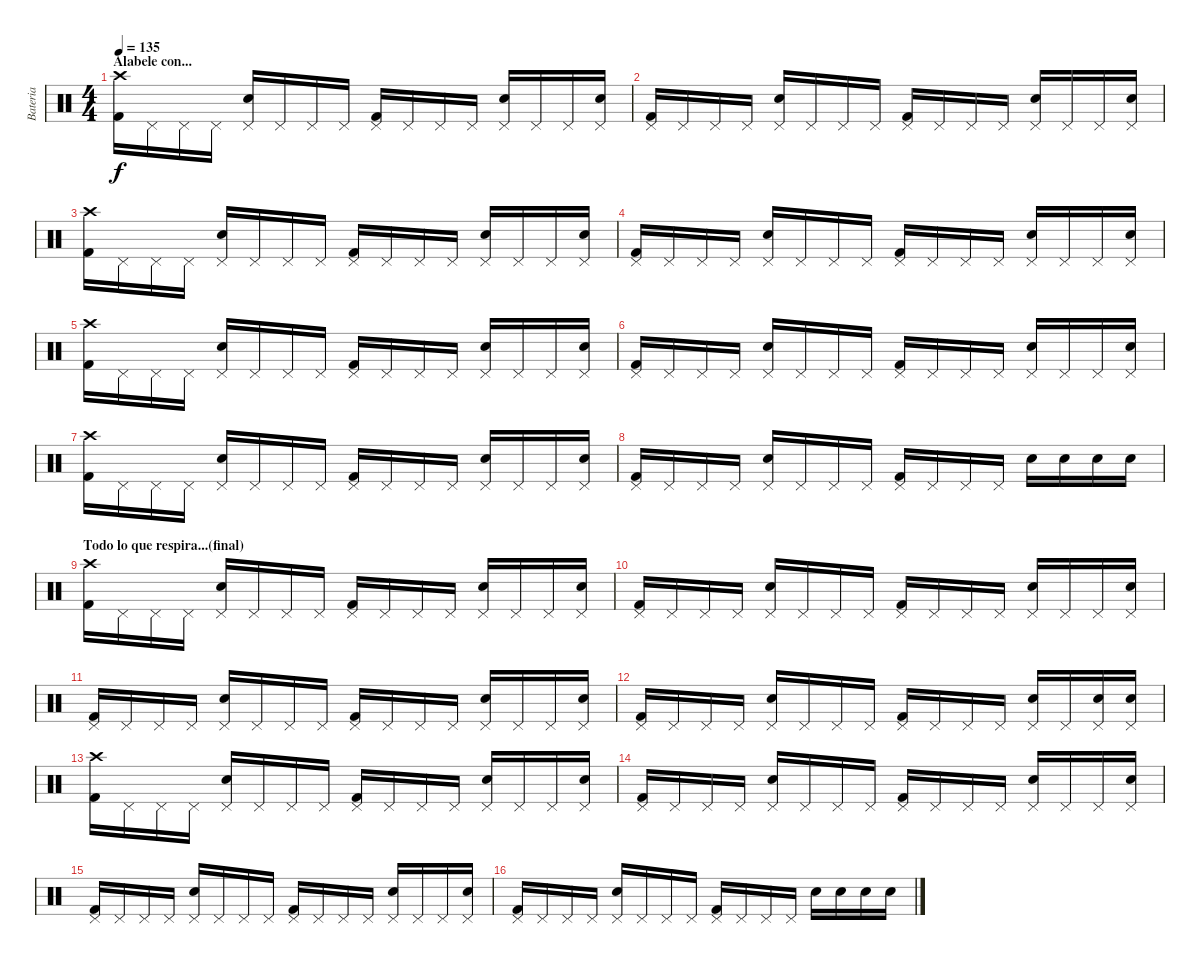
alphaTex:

\track ("Bateria" "Bateria") {instrument percussion}
\staff {score}
\articulation defaults
\ts (4 4)
\section ("" "Alabele con...")
\tempo 135
\clef neutral
\ks c
("Crash high (hit)" "Kick (hit) 2").16{dy f} "Pedal Hi-Hat (hit)".16 "Pedal Hi-Hat (hit)".16 "Pedal Hi-Hat (hit)".16 ("Pedal Hi-Hat (hit)" "Electric Snare (hit)").16 "Pedal Hi-Hat (hit)".16 "Pedal Hi-Hat (hit)".16 "Pedal Hi-Hat (hit)".16 ("Pedal Hi-Hat (hit)" "Kick (hit) 2").16 "Pedal Hi-Hat (hit)".16 "Pedal Hi-Hat (hit)".16 "Pedal Hi-Hat (hit)".16 ("Pedal Hi-Hat (hit)" "Electric Snare (hit)").16 "Pedal Hi-Hat (hit)".16 "Pedal Hi-Hat (hit)".16 ("Pedal Hi-Hat (hit)" "Electric Snare (hit)").16 |
("Pedal Hi-Hat (hit)" "Kick (hit) 2").16 "Pedal Hi-Hat (hit)".16 "Pedal Hi-Hat (hit)".16 "Pedal Hi-Hat (hit)".16 ("Pedal Hi-Hat (hit)" "Electric Snare (hit)").16 "Pedal Hi-Hat (hit)".16 "Pedal Hi-Hat (hit)".16 "Pedal Hi-Hat (hit)".16 ("Pedal Hi-Hat (hit)" "Kick (hit) 2").16 "Pedal Hi-Hat (hit)".16 "Pedal Hi-Hat (hit)".16 "Pedal Hi-Hat (hit)".16 ("Pedal Hi-Hat (hit)" "Electric Snare (hit)").16 "Pedal Hi-Hat (hit)".16 "Pedal Hi-Hat (hit)".16 ("Pedal Hi-Hat (hit)" "Electric Snare (hit)").16 |
("Crash high (hit)" "Kick (hit) 2").16 "Pedal Hi-Hat (hit)".16 "Pedal Hi-Hat (hit)".16 "Pedal Hi-Hat (hit)".16 ("Pedal Hi-Hat (hit)" "Electric Snare (hit)").16 "Pedal Hi-Hat (hit)".16 "Pedal Hi-Hat (hit)".16 "Pedal Hi-Hat (hit)".16 ("Pedal Hi-Hat (hit)" "Kick (hit) 2").16 "Pedal Hi-Hat (hit)".16 "Pedal Hi-Hat (hit)".16 "Pedal Hi-Hat (hit)".16 ("Pedal Hi-Hat (hit)" "Electric Snare (hit)").16 "Pedal Hi-Hat (hit)".16 "Pedal Hi-Hat (hit)".16 ("Pedal Hi-Hat (hit)" "Electric Snare (hit)").16 |
("Pedal Hi-Hat (hit)" "Kick (hit) 2").16 "Pedal Hi-Hat (hit)".16 "Pedal Hi-Hat (hit)".16 "Pedal Hi-Hat (hit)".16 ("Pedal Hi-Hat (hit)" "Electric Snare (hit)").16 "Pedal Hi-Hat (hit)".16 "Pedal Hi-Hat (hit)".16 "Pedal Hi-Hat (hit)".16 ("Pedal Hi-Hat (hit)" "Kick (hit) 2").16 "Pedal Hi-Hat (hit)".16 "Pedal Hi-Hat (hit)".16 "Pedal Hi-Hat (hit)".16 ("Pedal Hi-Hat (hit)" "Electric Snare (hit)").16 "Pedal Hi-Hat (hit)".16 "Pedal Hi-Hat (hit)".16 ("Pedal Hi-Hat (hit)" "Electric Snare (hit)").16 |
("Crash high (hit)" "Kick (hit) 2").16 "Pedal Hi-Hat (hit)".16 "Pedal Hi-Hat (hit)".16 "Pedal Hi-Hat (hit)".16 ("Pedal Hi-Hat (hit)" "Electric Snare (hit)").16 "Pedal Hi-Hat (hit)".16 "Pedal Hi-Hat (hit)".16 "Pedal Hi-Hat (hit)".16 ("Pedal Hi-Hat (hit)" "Kick (hit) 2").16 "Pedal Hi-Hat (hit)".16 "Pedal Hi-Hat (hit)".16 "Pedal Hi-Hat (hit)".16 ("Pedal Hi-Hat (hit)" "Electric Snare (hit)").16 "Pedal Hi-Hat (hit)".16 "Pedal Hi-Hat (hit)".16 ("Pedal Hi-Hat (hit)" "Electric Snare (hit)").16 |
("Pedal Hi-Hat (hit)" "Kick (hit) 2").16 "Pedal Hi-Hat (hit)".16 "Pedal Hi-Hat (hit)".16 "Pedal Hi-Hat (hit)".16 ("Pedal Hi-Hat (hit)" "Electric Snare (hit)").16 "Pedal Hi-Hat (hit)".16 "Pedal Hi-Hat (hit)".16 "Pedal Hi-Hat (hit)".16 ("Pedal Hi-Hat (hit)" "Kick (hit) 2").16 "Pedal Hi-Hat (hit)".16 "Pedal Hi-Hat (hit)".16 "Pedal Hi-Hat (hit)".16 ("Pedal Hi-Hat (hit)" "Electric Snare (hit)").16 "Pedal Hi-Hat (hit)".16 "Pedal Hi-Hat (hit)".16 ("Pedal Hi-Hat (hit)" "Electric Snare (hit)").16 |
("Crash high (hit)" "Kick (hit) 2").16 "Pedal Hi-Hat (hit)".16 "Pedal Hi-Hat (hit)".16 "Pedal Hi-Hat (hit)".16 ("Pedal Hi-Hat (hit)" "Electric Snare (hit)").16 "Pedal Hi-Hat (hit)".16 "Pedal Hi-Hat (hit)".16 "Pedal Hi-Hat (hit)".16 ("Pedal Hi-Hat (hit)" "Kick (hit) 2").16 "Pedal Hi-Hat (hit)".16 "Pedal Hi-Hat (hit)".16 "Pedal Hi-Hat (hit)".16 ("Pedal Hi-Hat (hit)" "Electric Snare (hit)").16 "Pedal Hi-Hat (hit)".16 "Pedal Hi-Hat (hit)".16 ("Pedal Hi-Hat (hit)" "Electric Snare (hit)").16 |
("Pedal Hi-Hat (hit)" "Kick (hit) 2").16 "Pedal Hi-Hat (hit)".16 "Pedal Hi-Hat (hit)".16 "Pedal Hi-Hat (hit)".16 ("Pedal Hi-Hat (hit)" "Electric Snare (hit)").16 "Pedal Hi-Hat (hit)".16 "Pedal Hi-Hat (hit)".16 "Pedal Hi-Hat (hit)".16 ("Pedal Hi-Hat (hit)" "Kick (hit) 2").16 "Pedal Hi-Hat (hit)".16 "Pedal Hi-Hat (hit)".16 "Pedal Hi-Hat (hit)".16 "Electric Snare (hit)".16 "Electric Snare (hit)".16 "Electric Snare (hit)".16 "Electric Snare (hit)".16 |
\section ("" "Todo lo que respira...(final)")
("Crash high (hit)" "Kick (hit) 2").16 "Pedal Hi-Hat (hit)".16 "Pedal Hi-Hat (hit)".16 "Pedal Hi-Hat (hit)".16 ("Pedal Hi-Hat (hit)" "Electric Snare (hit)").16 "Pedal Hi-Hat (hit)".16 "Pedal Hi-Hat (hit)".16 "Pedal Hi-Hat (hit)".16 ("Pedal Hi-Hat (hit)" "Kick (hit) 2").16 "Pedal Hi-Hat (hit)".16 "Pedal Hi-Hat (hit)".16 "Pedal Hi-Hat (hit)".16 ("Pedal Hi-Hat (hit)" "Electric Snare (hit)").16 "Pedal Hi-Hat (hit)".16 "Pedal Hi-Hat (hit)".16 ("Pedal Hi-Hat (hit)" "Electric Snare (hit)").16 |
("Pedal Hi-Hat (hit)" "Kick (hit) 2").16 "Pedal Hi-Hat (hit)".16 "Pedal Hi-Hat (hit)".16 "Pedal Hi-Hat (hit)".16 ("Pedal Hi-Hat (hit)" "Electric Snare (hit)").16 "Pedal Hi-Hat (hit)".16 "Pedal Hi-Hat (hit)".16 "Pedal Hi-Hat (hit)".16 ("Pedal Hi-Hat (hit)" "Kick (hit) 2").16 "Pedal Hi-Hat (hit)".16 "Pedal Hi-Hat (hit)".16 "Pedal Hi-Hat (hit)".16 ("Pedal Hi-Hat (hit)" "Electric Snare (hit)").16 "Pedal Hi-Hat (hit)".16 "Pedal Hi-Hat (hit)".16 ("Pedal Hi-Hat (hit)" "Electric Snare (hit)").16 |
("Pedal Hi-Hat (hit)" "Kick (hit) 2").16 "Pedal Hi-Hat (hit)".16 "Pedal Hi-Hat (hit)".16 "Pedal Hi-Hat (hit)".16 ("Pedal Hi-Hat (hit)" "Electric Snare (hit)").16 "Pedal Hi-Hat (hit)".16 "Pedal Hi-Hat (hit)".16 "Pedal Hi-Hat (hit)".16 ("Pedal Hi-Hat (hit)" "Kick (hit) 2").16 "Pedal Hi-Hat (hit)".16 "Pedal Hi-Hat (hit)".16 "Pedal Hi-Hat (hit)".16 ("Pedal Hi-Hat (hit)" "Electric Snare (hit)").16 "Pedal Hi-Hat (hit)".16 "Pedal Hi-Hat (hit)".16 ("Pedal Hi-Hat (hit)" "Electric Snare (hit)").16 |
("Pedal Hi-Hat (hit)" "Kick (hit) 2").16 "Pedal Hi-Hat (hit)".16 "Pedal Hi-Hat (hit)".16 "Pedal Hi-Hat (hit)".16 ("Pedal Hi-Hat (hit)" "Electric Snare (hit)").16 "Pedal Hi-Hat (hit)".16 "Pedal Hi-Hat (hit)".16 "Pedal Hi-Hat (hit)".16 ("Pedal Hi-Hat (hit)" "Kick (hit) 2").16 "Pedal Hi-Hat (hit)".16 "Pedal Hi-Hat (hit)".16 "Pedal Hi-Hat (hit)".16 ("Pedal Hi-Hat (hit)" "Electric Snare (hit)").16 "Pedal Hi-Hat (hit)".16 ("Pedal Hi-Hat (hit)" "Electric Snare (hit)").16 ("Pedal Hi-Hat (hit)" "Electric Snare (hit)").16 |
("Crash high (hit)" "Kick (hit) 2").16 "Pedal Hi-Hat (hit)".16 "Pedal Hi-Hat (hit)".16 "Pedal Hi-Hat (hit)".16 ("Pedal Hi-Hat (hit)" "Electric Snare (hit)").16 "Pedal Hi-Hat (hit)".16 "Pedal Hi-Hat (hit)".16 "Pedal Hi-Hat (hit)".16 ("Pedal Hi-Hat (hit)" "Kick (hit) 2").16 "Pedal Hi-Hat (hit)".16 "Pedal Hi-Hat (hit)".16 "Pedal Hi-Hat (hit)".16 ("Pedal Hi-Hat (hit)" "Electric Snare (hit)").16 "Pedal Hi-Hat (hit)".16 "Pedal Hi-Hat (hit)".16 ("Pedal Hi-Hat (hit)" "Electric Snare (hit)").16 |
("Pedal Hi-Hat (hit)" "Kick (hit) 2").16 "Pedal Hi-Hat (hit)".16 "Pedal Hi-Hat (hit)".16 "Pedal Hi-Hat (hit)".16 ("Pedal Hi-Hat (hit)" "Electric Snare (hit)").16 "Pedal Hi-Hat (hit)".16 "Pedal Hi-Hat (hit)".16 "Pedal Hi-Hat (hit)".16 ("Pedal Hi-Hat (hit)" "Kick (hit) 2").16 "Pedal Hi-Hat (hit)".16 "Pedal Hi-Hat (hit)".16 "Pedal Hi-Hat (hit)".16 ("Pedal Hi-Hat (hit)" "Electric Snare (hit)").16 "Pedal Hi-Hat (hit)".16 "Pedal Hi-Hat (hit)".16 ("Pedal Hi-Hat (hit)" "Electric Snare (hit)").16 |
("Pedal Hi-Hat (hit)" "Kick (hit) 2").16 "Pedal Hi-Hat (hit)".16 "Pedal Hi-Hat (hit)".16 "Pedal Hi-Hat (hit)".16 ("Pedal Hi-Hat (hit)" "Electric Snare (hit)").16 "Pedal Hi-Hat (hit)".16 "Pedal Hi-Hat (hit)".16 "Pedal Hi-Hat (hit)".16 ("Pedal Hi-Hat (hit)" "Kick (hit) 2").16 "Pedal Hi-Hat (hit)".16 "Pedal Hi-Hat (hit)".16 "Pedal Hi-Hat (hit)".16 ("Pedal Hi-Hat (hit)" "Electric Snare (hit)").16 "Pedal Hi-Hat (hit)".16 "Pedal Hi-Hat (hit)".16 ("Pedal Hi-Hat (hit)" "Electric Snare (hit)").16 |
("Pedal Hi-Hat (hit)" "Kick (hit) 2").16 "Pedal Hi-Hat (hit)".16 "Pedal Hi-Hat (hit)".16 "Pedal Hi-Hat (hit)".16 ("Pedal Hi-Hat (hit)" "Electric Snare (hit)").16 "Pedal Hi-Hat (hit)".16 "Pedal Hi-Hat (hit)".16 "Pedal Hi-Hat (hit)".16 ("Pedal Hi-Hat (hit)" "Kick (hit) 2").16 "Pedal Hi-Hat (hit)".16 "Pedal Hi-Hat (hit)".16 "Pedal Hi-Hat (hit)".16 "Electric Snare (hit)".16 "Electric Snare (hit)".16 "Electric Snare (hit)".16 "Electric Snare (hit)".16
